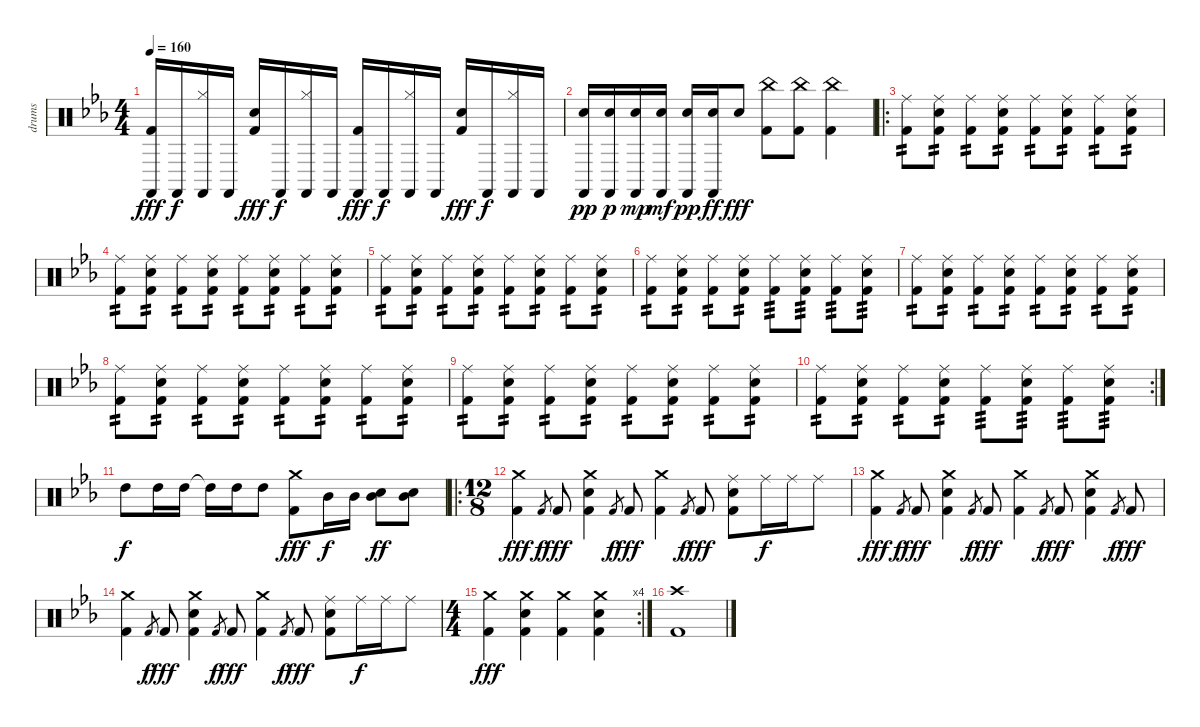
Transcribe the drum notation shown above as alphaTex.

\track ("drums" "drums") {instrument percussion}
\staff {score}
\articulation defaults
\ts (4 4)
\tempo 160
\clef neutral
\ks cminor
("Castanets (hit)" "Kick (hit) 2").16{dy fff} "Castanets (hit)".16{dy f} ("Hi-Hat (closed)" "Castanets (hit)").16 "Castanets (hit)".16 ("Electric Snare (hit)" "Kick (hit) 2").16{dy fff} "Castanets (hit)".16{dy f} ("Hi-Hat (closed)" "Castanets (hit)").16 "Castanets (hit)".16 ("Castanets (hit)" "Kick (hit) 2").16{dy fff} "Castanets (hit)".16{dy f} ("Hi-Hat (closed)" "Castanets (hit)").16 "Castanets (hit)".16 ("Electric Snare (hit)" "Kick (hit) 2").16{dy fff} "Castanets (hit)".16{dy f} ("Hi-Hat (closed)" "Castanets (hit)").16 "Castanets (hit)".16 |
("Castanets (hit)" "Electric Snare (hit)").16{dy pp} ("Castanets (hit)" "Electric Snare (hit)").16{dy p} ("Castanets (hit)" "Electric Snare (hit)").16{dy mp} ("Castanets (hit)" "Electric Snare (hit)").16{dy mf} ("Castanets (hit)" "Electric Snare (hit)").16{dy pp} ("Castanets (hit)" "Electric Snare (hit)").16{dy ff} "Electric Snare (hit)".8{dy fff} ("China (hit)" "Kick (hit) 2").8 ("China (hit)" "Kick (hit) 2").8 ("China (hit)" "Kick (hit) 2").4 |
\ro
("Ride (middle)" "Kick (hit) 2").8{tp 2} ("Ride (middle)" "Electric Snare (hit)" "Kick (hit) 2").8{tp 2} ("Ride (middle)" "Kick (hit) 2").8{tp 2} ("Ride (middle)" "Electric Snare (hit)" "Kick (hit) 2").8{tp 2} ("Ride (middle)" "Kick (hit) 2").8{tp 2} ("Ride (middle)" "Electric Snare (hit)" "Kick (hit) 2").8{tp 2} ("Ride (middle)" "Kick (hit) 2").8{tp 2} ("Ride (middle)" "Electric Snare (hit)" "Kick (hit) 2").8{tp 2} |
("Ride (middle)" "Kick (hit) 2").8{tp 2} ("Ride (middle)" "Electric Snare (hit)" "Kick (hit) 2").8{tp 2} ("Ride (middle)" "Kick (hit) 2").8{tp 2} ("Ride (middle)" "Electric Snare (hit)" "Kick (hit) 2").8{tp 2} ("Ride (middle)" "Kick (hit) 2").8{tp 2} ("Ride (middle)" "Electric Snare (hit)" "Kick (hit) 2").8{tp 2} ("Ride (middle)" "Kick (hit) 2").8{tp 2} ("Ride (middle)" "Electric Snare (hit)" "Kick (hit) 2").8{tp 2} |
("Ride (middle)" "Kick (hit) 2").8{tp 2} ("Ride (middle)" "Electric Snare (hit)" "Kick (hit) 2").8{tp 2} ("Ride (middle)" "Kick (hit) 2").8{tp 2} ("Ride (middle)" "Electric Snare (hit)" "Kick (hit) 2").8{tp 2} ("Ride (middle)" "Kick (hit) 2").8{tp 2} ("Ride (middle)" "Electric Snare (hit)" "Kick (hit) 2").8{tp 2} ("Ride (middle)" "Kick (hit) 2").8{tp 2} ("Ride (middle)" "Electric Snare (hit)" "Kick (hit) 2").8{tp 2} |
("Ride (middle)" "Kick (hit) 2").8{tp 2} ("Ride (middle)" "Electric Snare (hit)" "Kick (hit) 2").8{tp 2} ("Ride (middle)" "Kick (hit) 2").8{tp 2} ("Ride (middle)" "Electric Snare (hit)" "Kick (hit) 2").8{tp 2} ("Ride (middle)" "Kick (hit) 2").8{tp 3} ("Ride (middle)" "Electric Snare (hit)" "Kick (hit) 2").8{tp 3} ("Ride (middle)" "Kick (hit) 2").8{tp 3} ("Ride (middle)" "Electric Snare (hit)" "Kick (hit) 2").8{tp 3} |
("Ride (middle)" "Kick (hit) 2").8{tp 2} ("Ride (middle)" "Electric Snare (hit)" "Kick (hit) 2").8{tp 2} ("Ride (middle)" "Kick (hit) 2").8{tp 2} ("Ride (middle)" "Electric Snare (hit)" "Kick (hit) 2").8{tp 2} ("Ride (middle)" "Kick (hit) 2").8{tp 2} ("Ride (middle)" "Electric Snare (hit)" "Kick (hit) 2").8{tp 2} ("Ride (middle)" "Kick (hit) 2").8{tp 2} ("Ride (middle)" "Electric Snare (hit)" "Kick (hit) 2").8{tp 2} |
("Ride (middle)" "Kick (hit) 2").8{tp 2} ("Ride (middle)" "Electric Snare (hit)" "Kick (hit) 2").8{tp 2} ("Ride (middle)" "Kick (hit) 2").8{tp 2} ("Ride (middle)" "Electric Snare (hit)" "Kick (hit) 2").8{tp 2} ("Ride (middle)" "Kick (hit) 2").8{tp 2} ("Ride (middle)" "Electric Snare (hit)" "Kick (hit) 2").8{tp 2} ("Ride (middle)" "Kick (hit) 2").8{tp 2} ("Ride (middle)" "Electric Snare (hit)" "Kick (hit) 2").8{tp 2} |
("Ride (middle)" "Kick (hit) 2").8{tp 2} ("Ride (middle)" "Electric Snare (hit)" "Kick (hit) 2").8{tp 2} ("Ride (middle)" "Kick (hit) 2").8{tp 2} ("Ride (middle)" "Electric Snare (hit)" "Kick (hit) 2").8{tp 2} ("Ride (middle)" "Kick (hit) 2").8{tp 2} ("Ride (middle)" "Electric Snare (hit)" "Kick (hit) 2").8{tp 2} ("Ride (middle)" "Kick (hit) 2").8{tp 2} ("Ride (middle)" "Electric Snare (hit)" "Kick (hit) 2").8{tp 2} |
\rc 2
("Ride (middle)" "Kick (hit) 2").8{tp 2} ("Ride (middle)" "Electric Snare (hit)" "Kick (hit) 2").8{tp 2} ("Ride (middle)" "Kick (hit) 2").8{tp 2} ("Ride (middle)" "Electric Snare (hit)" "Kick (hit) 2").8{tp 2} ("Ride (middle)" "Kick (hit) 2").8{tp 3} ("Ride (middle)" "Electric Snare (hit)" "Kick (hit) 2").8{tp 3} ("Ride (middle)" "Kick (hit) 2").8{tp 3} ("Ride (middle)" "Electric Snare (hit)" "Kick (hit) 2").8{tp 3} |
"High Tom (hit)".8{dy f} "High Tom (hit)".16 "High Tom (hit)".16 "High Tom (hit)"{t}.16 "High Tom (hit)".16 "High Tom (hit)".8 ("Crash medium (hit)" "Kick (hit) 2").8{dy fff} "Mid Tom (hit)".16{dy f} "Mid Tom (hit)".16 ("Mid Tom (hit)" "Electric Snare (hit)").8{dy ff} ("Mid Tom (hit)" "Electric Snare (hit)").8 |
\ro
\ts (12 8)
("Crash medium (hit)" "Kick (hit) 2").4{dy fff} "Kick (hit) 2".8{gr dy f} "Kick (hit) 2".8{dy fff} ("Crash medium (hit)" "Electric Snare (hit)" "Kick (hit) 2").4 "Kick (hit) 2".8{gr dy f} "Kick (hit) 2".8{dy fff} ("Crash medium (hit)" "Kick (hit) 2").4 "Kick (hit) 2".8{gr dy f} "Kick (hit) 2".8{dy fff} ("Ride (middle)" "Electric Snare (hit)" "Kick (hit) 2").8 "Ride (middle)".16{dy f} "Ride (middle)".16 "Ride (middle)".8 |
("Crash medium (hit)" "Kick (hit) 2").4{dy fff} "Kick (hit) 2".8{gr dy f} "Kick (hit) 2".8{dy fff} ("Crash medium (hit)" "Electric Snare (hit)" "Kick (hit) 2").4 "Kick (hit) 2".8{gr dy f} "Kick (hit) 2".8{dy fff} ("Crash medium (hit)" "Kick (hit) 2").4 "Kick (hit) 2".8{gr dy f} "Kick (hit) 2".8{dy fff} ("Crash medium (hit)" "Electric Snare (hit)" "Kick (hit) 2").4 "Kick (hit) 2".8{gr dy f} "Kick (hit) 2".8{dy fff} |
("Crash medium (hit)" "Kick (hit) 2").4 "Kick (hit) 2".8{gr dy f} "Kick (hit) 2".8{dy fff} ("Crash medium (hit)" "Electric Snare (hit)" "Kick (hit) 2").4 "Kick (hit) 2".8{gr dy f} "Kick (hit) 2".8{dy fff} ("Crash medium (hit)" "Kick (hit) 2").4 "Kick (hit) 2".8{gr dy f} "Kick (hit) 2".8{dy fff} ("Ride (middle)" "Electric Snare (hit)" "Kick (hit) 2").8 "Ride (middle)".16{dy f} "Ride (middle)".16 "Ride (middle)".8 |
\rc 4
\ts (4 4)
("Crash medium (hit)" "Kick (hit) 2").4{dy fff} ("Crash medium (hit)" "Electric Snare (hit)" "Kick (hit) 2").4 ("Crash medium (hit)" "Kick (hit) 2").4 ("Crash medium (hit)" "Electric Snare (hit)" "Kick (hit) 2").4 |
("Crash high (hit)" "Kick (hit) 2").1
